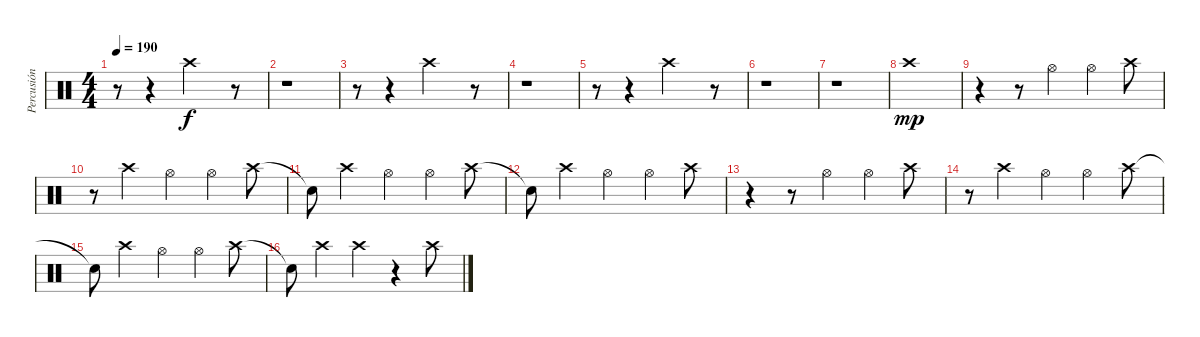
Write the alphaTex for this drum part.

\track ("Percusión" "Percusión") {instrument percussion}
\staff {score}
\articulation defaults
\ts (4 4)
\tempo 190
\clef neutral
\ks c
r.8{dy f} r.4 "Crash high (hit)".2 r.8 |
r.1 |
r.8 r.4 "Crash high (hit)".2 r.8 |
r.1 |
r.8 r.4 "Crash high (hit)".2 r.8 |
r.1 |
r.1 |
"Crash high (hit)".1{dy mp} |
r.4 r.8 "Hi-Hat (open)".4 "Hi-Hat (open)".4 "Crash high (hit)".8 |
r.8 "Crash high (hit)".4 "Hi-Hat (open)".4 "Hi-Hat (open)".4 "Crash high (hit)".8 |
"Snare (hit)"{t}.8 "Crash high (hit)".4 "Hi-Hat (open)".4 "Hi-Hat (open)".4 "Crash high (hit)".8 |
"Snare (hit)"{t}.8 "Crash high (hit)".4 "Hi-Hat (open)".4 "Hi-Hat (open)".4 "Crash high (hit)".8 |
r.4 r.8 "Hi-Hat (open)".4 "Hi-Hat (open)".4 "Crash high (hit)".8 |
r.8 "Crash high (hit)".4 "Hi-Hat (open)".4 "Hi-Hat (open)".4 "Crash high (hit)".8 |
"Snare (hit)"{t}.8 "Crash high (hit)".4 "Hi-Hat (open)".4 "Hi-Hat (open)".4 "Crash high (hit)".8 |
"Snare (hit)"{t}.8 "Crash high (hit)".4 "Crash high (hit)".4 r.4 "Crash high (hit)".8
